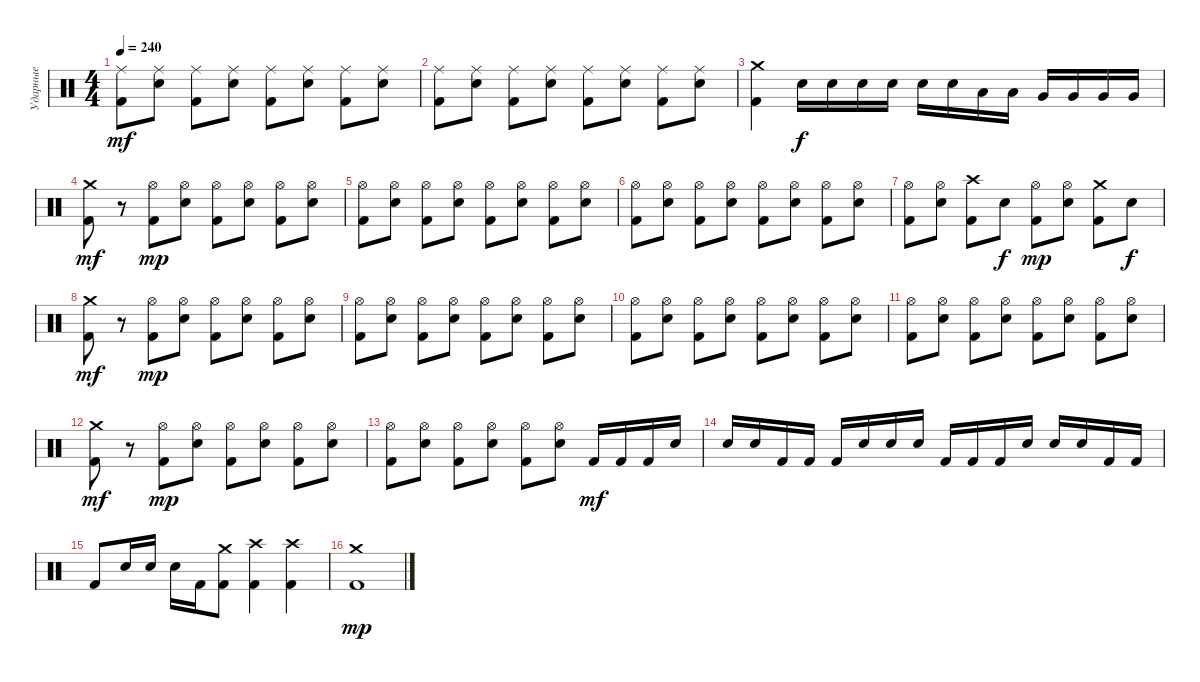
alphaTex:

\track ("Ударные" "Ударные") {instrument percussion}
\staff {score}
\articulation defaults
\ts (4 4)
\tempo 240
\clef neutral
\ks c
("Ride (middle)" "Kick (hit) 2").8{dy mf} ("Ride (middle)" "Snare (hit) 2").8 ("Ride (middle)" "Kick (hit) 2").8 ("Ride (middle)" "Snare (hit) 2").8 ("Ride (middle)" "Kick (hit) 2").8 ("Ride (middle)" "Snare (hit) 2").8 ("Ride (middle)" "Kick (hit) 2").8 ("Ride (middle)" "Snare (hit) 2").8 |
("Ride (middle)" "Kick (hit) 2").8 ("Ride (middle)" "Snare (hit) 2").8 ("Ride (middle)" "Kick (hit) 2").8 ("Ride (middle)" "Snare (hit) 2").8 ("Ride (middle)" "Kick (hit) 2").8 ("Ride (middle)" "Snare (hit) 2").8 ("Ride (middle)" "Kick (hit) 2").8 ("Ride (middle)" "Snare (hit) 2").8 |
("Crash medium (hit)" "Kick (hit) 2").4 "Snare (hit) 2".16{dy f} "Snare (hit) 2".16 "Snare (hit) 2".16 "Snare (hit) 2".16 "Snare (hit) 2".16 "Snare (hit) 2".16 "Low Tom (hit)".16 "Low Tom (hit)".16 "Very Low Tom (hit)".16 "Very Low Tom (hit)".16 "Very Low Tom (hit)".16 "Very Low Tom (hit)".16 |
("Crash medium (hit)" "Kick (hit) 2").8{dy mf} r.8 ("Hi-Hat (open)" "Kick (hit) 2").8{dy mp} ("Hi-Hat (open)" "Snare (hit) 2").8 ("Hi-Hat (open)" "Kick (hit) 2").8 ("Hi-Hat (open)" "Snare (hit) 2").8 ("Hi-Hat (open)" "Kick (hit) 2").8 ("Hi-Hat (open)" "Snare (hit) 2").8 |
("Hi-Hat (open)" "Kick (hit) 2").8 ("Hi-Hat (open)" "Snare (hit) 2").8 ("Hi-Hat (open)" "Kick (hit) 2").8 ("Hi-Hat (open)" "Snare (hit) 2").8 ("Hi-Hat (open)" "Kick (hit) 2").8 ("Hi-Hat (open)" "Snare (hit) 2").8 ("Hi-Hat (open)" "Kick (hit) 2").8 ("Hi-Hat (open)" "Snare (hit) 2").8 |
("Hi-Hat (open)" "Kick (hit) 2").8 ("Hi-Hat (open)" "Snare (hit) 2").8 ("Hi-Hat (open)" "Kick (hit) 2").8 ("Hi-Hat (open)" "Snare (hit) 2").8 ("Hi-Hat (open)" "Kick (hit) 2").8 ("Hi-Hat (open)" "Snare (hit) 2").8 ("Hi-Hat (open)" "Kick (hit) 2").8 ("Hi-Hat (open)" "Snare (hit) 2").8 |
("Hi-Hat (open)" "Kick (hit) 2").8 ("Hi-Hat (open)" "Snare (hit) 2").8 ("Crash high (hit)" "Kick (hit) 2").8 "Snare (hit) 2".8{dy f} ("Hi-Hat (open)" "Kick (hit) 2").8{dy mp} ("Hi-Hat (open)" "Snare (hit) 2").8 ("Crash medium (hit)" "Kick (hit) 2").8 "Snare (hit) 2".8{dy f} |
("Crash medium (hit)" "Kick (hit) 2").8{dy mf} r.8 ("Hi-Hat (open)" "Kick (hit) 2").8{dy mp} ("Hi-Hat (open)" "Snare (hit) 2").8 ("Hi-Hat (open)" "Kick (hit) 2").8 ("Hi-Hat (open)" "Snare (hit) 2").8 ("Hi-Hat (open)" "Kick (hit) 2").8 ("Hi-Hat (open)" "Snare (hit) 2").8 |
("Hi-Hat (open)" "Kick (hit) 2").8 ("Hi-Hat (open)" "Snare (hit) 2").8 ("Hi-Hat (open)" "Kick (hit) 2").8 ("Hi-Hat (open)" "Snare (hit) 2").8 ("Hi-Hat (open)" "Kick (hit) 2").8 ("Hi-Hat (open)" "Snare (hit) 2").8 ("Hi-Hat (open)" "Kick (hit) 2").8 ("Hi-Hat (open)" "Snare (hit) 2").8 |
("Hi-Hat (open)" "Kick (hit) 2").8 ("Hi-Hat (open)" "Snare (hit) 2").8 ("Hi-Hat (open)" "Kick (hit) 2").8 ("Hi-Hat (open)" "Snare (hit) 2").8 ("Hi-Hat (open)" "Kick (hit) 2").8 ("Hi-Hat (open)" "Snare (hit) 2").8 ("Hi-Hat (open)" "Kick (hit) 2").8 ("Hi-Hat (open)" "Snare (hit) 2").8 |
("Hi-Hat (open)" "Kick (hit) 2").8 ("Hi-Hat (open)" "Snare (hit) 2").8 ("Hi-Hat (open)" "Kick (hit) 2").8 ("Hi-Hat (open)" "Snare (hit) 2").8 ("Hi-Hat (open)" "Kick (hit) 2").8 ("Hi-Hat (open)" "Snare (hit) 2").8 ("Hi-Hat (open)" "Kick (hit) 2").8 ("Hi-Hat (open)" "Snare (hit) 2").8 |
("Crash medium (hit)" "Kick (hit) 2").8{dy mf} r.8 ("Hi-Hat (open)" "Kick (hit) 2").8{dy mp} ("Hi-Hat (open)" "Snare (hit) 2").8 ("Hi-Hat (open)" "Kick (hit) 2").8 ("Hi-Hat (open)" "Snare (hit) 2").8 ("Hi-Hat (open)" "Kick (hit) 2").8 ("Hi-Hat (open)" "Snare (hit) 2").8 |
("Hi-Hat (open)" "Kick (hit) 2").8 ("Hi-Hat (open)" "Snare (hit) 2").8 ("Hi-Hat (open)" "Kick (hit) 2").8 ("Hi-Hat (open)" "Snare (hit) 2").8 ("Hi-Hat (open)" "Kick (hit) 2").8 ("Hi-Hat (open)" "Snare (hit) 2").8 "Kick (hit) 2".16{dy mf} "Kick (hit) 2".16 "Kick (hit) 2".16 "Snare (hit) 2".16 |
"Snare (hit) 2".16 "Snare (hit) 2".16 "Kick (hit) 2".16 "Kick (hit) 2".16 "Kick (hit) 2".16 "Snare (hit) 2".16 "Snare (hit) 2".16 "Snare (hit) 2".16 "Kick (hit) 2".16 "Kick (hit) 2".16 "Kick (hit) 2".16 "Snare (hit) 2".16 "Snare (hit) 2".16 "Snare (hit) 2".16 "Kick (hit) 2".16 "Kick (hit) 2".16 |
"Kick (hit) 2".8 "Snare (hit) 2".16 "Snare (hit) 2".16 "Snare (hit) 2".16 "Kick (hit) 2".16 ("Crash medium (hit)" "Kick (hit) 2").8 ("Crash high (hit)" "Kick (hit) 2").4 ("Crash high (hit)" "Kick (hit) 2").4 |
("Crash medium (hit)" "Kick (hit) 2").1{dy mp}
